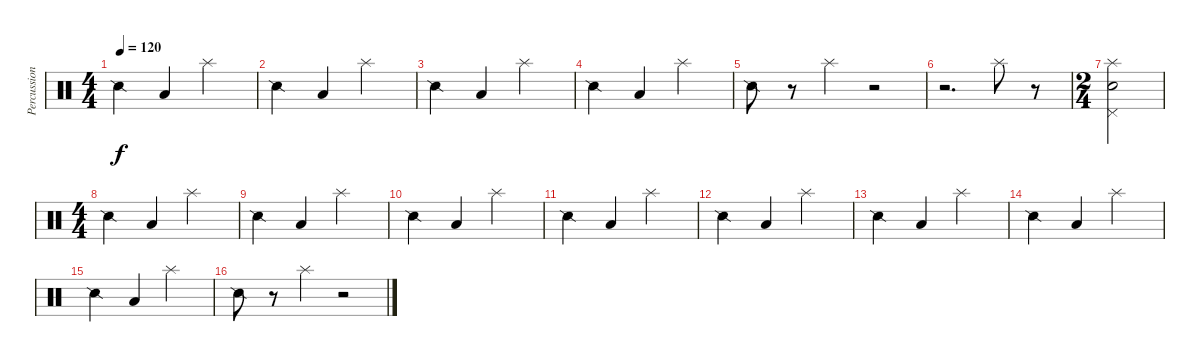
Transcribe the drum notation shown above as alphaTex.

\track ("Percussions" "Percussion") {instrument percussion}
\staff {score}
\articulation defaults
\ts (4 4)
\tempo 120
\clef neutral
\ks c "Snare (side stick) 2".4{dy f} "Low Tom (hit)".4 "Splash (hit)".2
|
"Snare (side stick) 2".4 "Low Tom (hit)".4 "Splash (hit)".2 |
"Snare (side stick) 2".4 "Low Tom (hit)".4 "Splash (hit)".2 |
"Snare (side stick) 2".4 "Low Tom (hit)".4 "Splash (hit)".2 |
"Snare (side stick) 2".8 r.8 "Splash (hit)".4 r.2 |
r.2{d} "Splash (hit)".8 r.8 |
\ts (2 4)
("Snare (hit)" "Pedal Hi-Hat (hit)" "Splash (hit)").2 |
\ts (4 4)
"Snare (side stick) 2".4 "Low Tom (hit)".4 "Splash (hit)".2 |
"Snare (side stick) 2".4 "Low Tom (hit)".4 "Splash (hit)".2 |
"Snare (side stick) 2".4 "Low Tom (hit)".4 "Splash (hit)".2 |
"Snare (side stick) 2".4 "Low Tom (hit)".4 "Splash (hit)".2 |
"Snare (side stick) 2".4 "Low Tom (hit)".4 "Splash (hit)".2 |
"Snare (side stick) 2".4 "Low Tom (hit)".4 "Splash (hit)".2 |
"Snare (side stick) 2".4 "Low Tom (hit)".4 "Splash (hit)".2 |
"Snare (side stick) 2".4 "Low Tom (hit)".4 "Splash (hit)".2 |
"Snare (side stick) 2".8 r.8 "Splash (hit)".4 r.2
